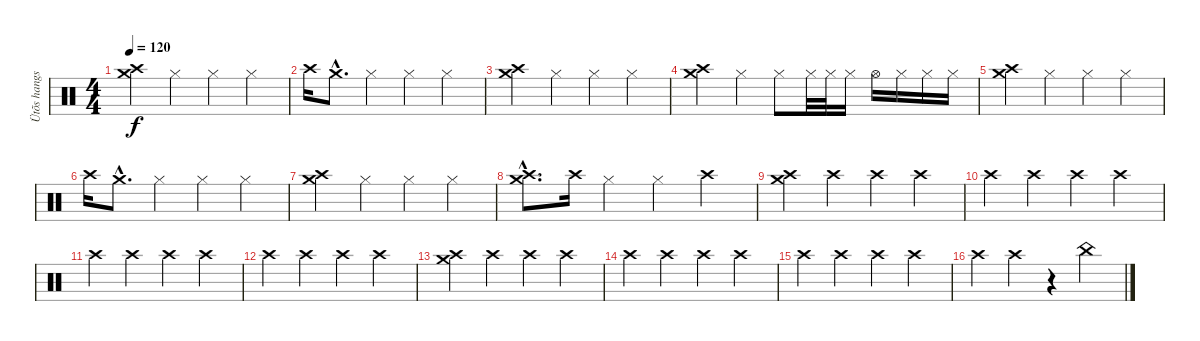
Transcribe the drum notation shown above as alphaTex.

\track ("Ütõs hangszer" "Ütõs hangs") {instrument percussion}
\staff {score}
\articulation defaults
\ts (4 4)
\tempo 120
\clef neutral
\ks c
("Crash medium (hit)" "Crash high (hit)").4{dy f} "Hi-Hat (closed)".4 "Hi-Hat (closed)".4 "Hi-Hat (closed)".4 |
"Crash high (hit)".16 "Crash medium (hit)"{hac}.8{d} "Hi-Hat (closed)".4 "Hi-Hat (closed)".4 "Hi-Hat (closed)".4 |
("Crash medium (hit)" "Crash high (hit)").4 "Hi-Hat (closed)".4 "Hi-Hat (closed)".4 "Hi-Hat (closed)".4 |
("Crash medium (hit)" "Crash high (hit)").4 "Hi-Hat (closed)".4 "Hi-Hat (closed)".8 "Hi-Hat (closed)".32 "Hi-Hat (closed)".32 "Hi-Hat (closed)".16 "Hi-Hat (open)".16 "Hi-Hat (closed)".16 "Hi-Hat (closed)".16 "Hi-Hat (closed)".16 |
("Crash medium (hit)" "Crash high (hit)").4 "Hi-Hat (closed)".4 "Hi-Hat (closed)".4 "Hi-Hat (closed)".4 |
"Crash high (hit)".16 "Crash medium (hit)"{hac}.8{d} "Hi-Hat (closed)".4 "Hi-Hat (closed)".4 "Hi-Hat (closed)".4 |
("Crash medium (hit)" "Crash high (hit)").4 "Hi-Hat (closed)".4 "Hi-Hat (closed)".4 "Hi-Hat (closed)".4 |
("Crash medium (hit)"{hac} "Crash high (hit)"{hac}).8{d} "Crash high (hit)".16 "Hi-Hat (closed)".4 "Hi-Hat (closed)".4 "Crash high (hit)".4 |
("Crash medium (hit)" "Crash high (hit)").4 "Crash high (hit)".4 "Crash high (hit)".4 "Crash high (hit)".4 |
"Crash high (hit)".4 "Crash high (hit)".4 "Crash high (hit)".4 "Crash high (hit)".4 |
"Crash high (hit)".4 "Crash high (hit)".4 "Crash high (hit)".4 "Crash high (hit)".4 |
"Crash high (hit)".4 "Crash high (hit)".4 "Crash high (hit)".4 "Crash high (hit)".4 |
("Crash medium (hit)" "Crash high (hit)").4 "Crash high (hit)".4 "Crash high (hit)".4 "Crash high (hit)".4 |
"Crash high (hit)".4 "Crash high (hit)".4 "Crash high (hit)".4 "Crash high (hit)".4 |
"Crash high (hit)".4 "Crash high (hit)".4 "Crash high (hit)".4 "Crash high (hit)".4 |
"Crash high (hit)".4 "Crash high (hit)".4 r.4 "China (hit)".4
